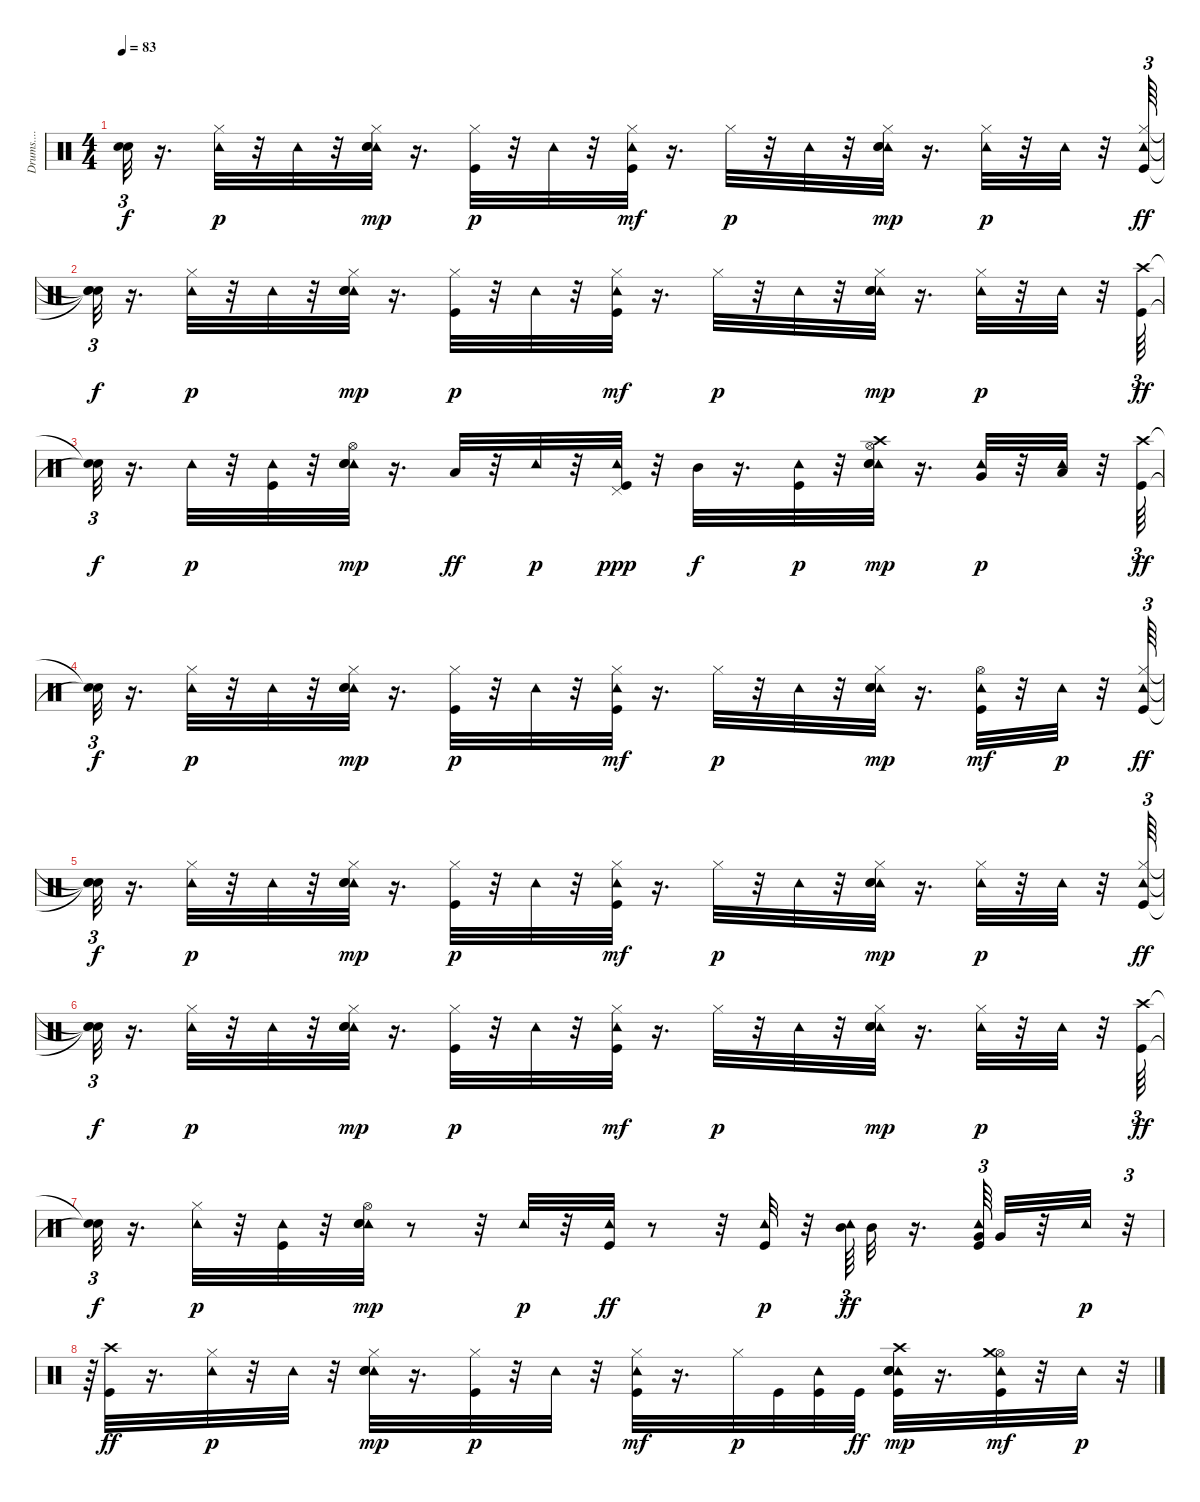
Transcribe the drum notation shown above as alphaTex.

\track ("Drums....           " "Drums.... ") {instrument percussion}
\staff {score}
\articulation defaults
\ts (4 4)
\tempo 83
\clef neutral
\ks c
("Snare (hit)"{t} "Snare (hit)"{t}).32{tu (3 2) dy f} r.16{d} ("Tambourine (hit)" "Hi-Hat (closed)").32{dy p} r.32 "Tambourine (hit)".32 r.32 ("Tambourine (hit)" "Snare (hit) 2" "Hi-Hat (closed)" "Electric Snare (hit)").32{dy mp} r.16{d} ("Kick (hit)" "Hi-Hat (closed)").32{dy p} r.32 "Tambourine (hit)".32 r.32 ("Kick (hit)" "Tambourine (hit)" "Hi-Hat (closed)").32{dy mf} r.16{d} "Hi-Hat (closed)".32{dy p} r.32 "Tambourine (hit)".32 r.32 ("Tambourine (hit)" "Snare (hit) 2" "Hi-Hat (closed)" "Electric Snare (hit)").32{dy mp} r.16{d} ("Tambourine (hit)" "Hi-Hat (closed)").32{dy p} r.32 "Tambourine (hit)".32 r.32 ("Kick (hit)" "Tambourine (hit)" "Hi-Hat (closed)").64{tu (3 2) dy ff} |
("Snare (hit)"{t} "Snare (hit)"{t} "Snare (hit)"{t}).32{tu (3 2) dy f} r.16{d} ("Tambourine (hit)" "Hi-Hat (closed)").32{dy p} r.32 "Tambourine (hit)".32 r.32 ("Tambourine (hit)" "Snare (hit) 2" "Hi-Hat (closed)" "Electric Snare (hit)").32{dy mp} r.16{d} ("Kick (hit)" "Hi-Hat (closed)").32{dy p} r.32 "Tambourine (hit)".32 r.32 ("Kick (hit)" "Tambourine (hit)" "Hi-Hat (closed)").32{dy mf} r.16{d} "Hi-Hat (closed)".32{dy p} r.32 "Tambourine (hit)".32 r.32 ("Tambourine (hit)" "Snare (hit) 2" "Hi-Hat (closed)" "Electric Snare (hit)").32{dy mp} r.16{d} ("Tambourine (hit)" "Hi-Hat (closed)").32{dy p} r.32 "Tambourine (hit)".32 r.32 ("Kick (hit)" "Crash high (hit)").64{tu (3 2) dy ff} |
("Snare (hit)"{t} "Snare (hit)"{t}).32{tu (3 2) dy f} r.16{d} "Tambourine (hit)".32{dy p} r.32 ("Kick (hit)" "Tambourine (hit)").32 r.32 ("Tambourine (hit)" "Snare (hit) 2" "Hi-Hat (open)" "Electric Snare (hit)").32{dy mp} r.16{d} "Low Tom (hit)".32{dy ff} r.32 "Tambourine (hit)".32{dy p} r.32 ("Kick (hit)" "Tambourine (hit)" "Pedal Hi-Hat (hit)").32{dy ppp} r.32 "Mid Tom (hit)".32{dy f} r.16{d} ("Kick (hit)" "Tambourine (hit)").32{dy p} r.32 ("Tambourine (hit)" "Snare (hit) 2" "Hi-Hat (open)" "Crash high (hit)" "Electric Snare (hit)").32{dy mp} r.16{d} ("Tambourine (hit)" "Very Low Tom (hit)").32{dy p} r.32 ("Tambourine (hit)" "Low Floor Tom (hit)").32 r.32 ("Kick (hit)" "Crash high (hit)").64{tu (3 2) dy ff} |
("Snare (hit)"{t} "Snare (hit)"{t}).32{tu (3 2) dy f} r.16{d} ("Tambourine (hit)" "Hi-Hat (closed)").32{dy p} r.32 "Tambourine (hit)".32 r.32 ("Tambourine (hit)" "Snare (hit) 2" "Hi-Hat (closed)" "Electric Snare (hit)").32{dy mp} r.16{d} ("Kick (hit)" "Hi-Hat (closed)").32{dy p} r.32 "Tambourine (hit)".32 r.32 ("Kick (hit)" "Tambourine (hit)" "Hi-Hat (closed)").32{dy mf} r.16{d} "Hi-Hat (closed)".32{dy p} r.32 "Tambourine (hit)".32 r.32 ("Tambourine (hit)" "Snare (hit) 2" "Hi-Hat (closed)" "Electric Snare (hit)").32{dy mp} r.16{d} ("Kick (hit)" "Tambourine (hit)" "Hi-Hat (open)").32{dy mf} r.32 "Tambourine (hit)".32{dy p} r.32 ("Kick (hit)" "Tambourine (hit)" "Hi-Hat (closed)").64{tu (3 2) dy ff} |
("Snare (hit)"{t} "Snare (hit)"{t} "Snare (hit)"{t}).32{tu (3 2) dy f} r.16{d} ("Tambourine (hit)" "Hi-Hat (closed)").32{dy p} r.32 "Tambourine (hit)".32 r.32 ("Tambourine (hit)" "Snare (hit) 2" "Hi-Hat (closed)" "Electric Snare (hit)").32{dy mp} r.16{d} ("Kick (hit)" "Hi-Hat (closed)").32{dy p} r.32 "Tambourine (hit)".32 r.32 ("Kick (hit)" "Tambourine (hit)" "Hi-Hat (closed)").32{dy mf} r.16{d} "Hi-Hat (closed)".32{dy p} r.32 "Tambourine (hit)".32 r.32 ("Tambourine (hit)" "Snare (hit) 2" "Hi-Hat (closed)" "Electric Snare (hit)").32{dy mp} r.16{d} ("Tambourine (hit)" "Hi-Hat (closed)").32{dy p} r.32 "Tambourine (hit)".32 r.32 ("Kick (hit)" "Tambourine (hit)" "Hi-Hat (closed)").64{tu (3 2) dy ff} |
("Snare (hit)"{t} "Snare (hit)"{t} "Snare (hit)"{t}).32{tu (3 2) dy f} r.16{d} ("Tambourine (hit)" "Hi-Hat (closed)").32{dy p} r.32 "Tambourine (hit)".32 r.32 ("Tambourine (hit)" "Snare (hit) 2" "Hi-Hat (closed)" "Electric Snare (hit)").32{dy mp} r.16{d} ("Kick (hit)" "Hi-Hat (closed)").32{dy p} r.32 "Tambourine (hit)".32 r.32 ("Kick (hit)" "Tambourine (hit)" "Hi-Hat (closed)").32{dy mf} r.16{d} "Hi-Hat (closed)".32{dy p} r.32 "Tambourine (hit)".32 r.32 ("Tambourine (hit)" "Snare (hit) 2" "Hi-Hat (closed)" "Electric Snare (hit)").32{dy mp} r.16{d} ("Tambourine (hit)" "Hi-Hat (closed)").32{dy p} r.32 "Tambourine (hit)".32 r.32 ("Kick (hit)" "Crash high (hit)").64{tu (3 2) dy ff} |
("Snare (hit)"{t} "Snare (hit)"{t}).32{tu (3 2) dy f} r.16{d} ("Tambourine (hit)" "Hi-Hat (closed)").32{dy p} r.32 ("Kick (hit)" "Tambourine (hit)").32 r.32 ("Tambourine (hit)" "Snare (hit) 2" "Hi-Hat (open)" "Electric Snare (hit)").32{dy mp} r.8 r.32 "Tambourine (hit)".32{dy p} r.32 ("Kick (hit)" "Tambourine (hit)").32{dy ff} r.8 r.32 ("Kick (hit)" "Tambourine (hit)").32{dy p} r.32 ("Tambourine (hit)" "Mid Tom (hit)").64{tu (3 2) dy ff} "Mid Tom (hit)".32 r.16{d} ("Kick (hit)" "Tambourine (hit)" "Very Low Tom (hit)").64{tu (3 2)} "Very Low Tom (hit)".32 r.32 "Tambourine (hit)".32{dy p} r.32{tu (3 2)} |
r.64{tu (3 2)} ("Kick (hit)" "Crash high (hit)").32{dy ff} r.16{d} ("Tambourine (hit)" "Hi-Hat (closed)").32{dy p} r.32 "Tambourine (hit)".32 r.32 ("Tambourine (hit)" "Snare (hit) 2" "Hi-Hat (closed)" "Electric Snare (hit)").32{dy mp} r.16{d} ("Kick (hit)" "Hi-Hat (closed)").32{dy p} r.32 "Tambourine (hit)".32 r.32 ("Kick (hit)" "Tambourine (hit)" "Hi-Hat (closed)").32{dy mf} r.16{d} "Hi-Hat (closed)".32{dy p} "Kick (hit)".32 ("Kick (hit)" "Tambourine (hit)").32 "Kick (hit)".32{dy ff} ("Kick (hit)" "Tambourine (hit)" "Snare (hit) 2" "Crash high (hit)" "Electric Snare (hit)").32{dy mp} r.16{d} ("Kick (hit)" "Tambourine (hit)" "Hi-Hat (open)" "Crash medium (hit)").32{dy mf} r.32 "Tambourine (hit)".32{dy p} r.32{tu (3 2)}
